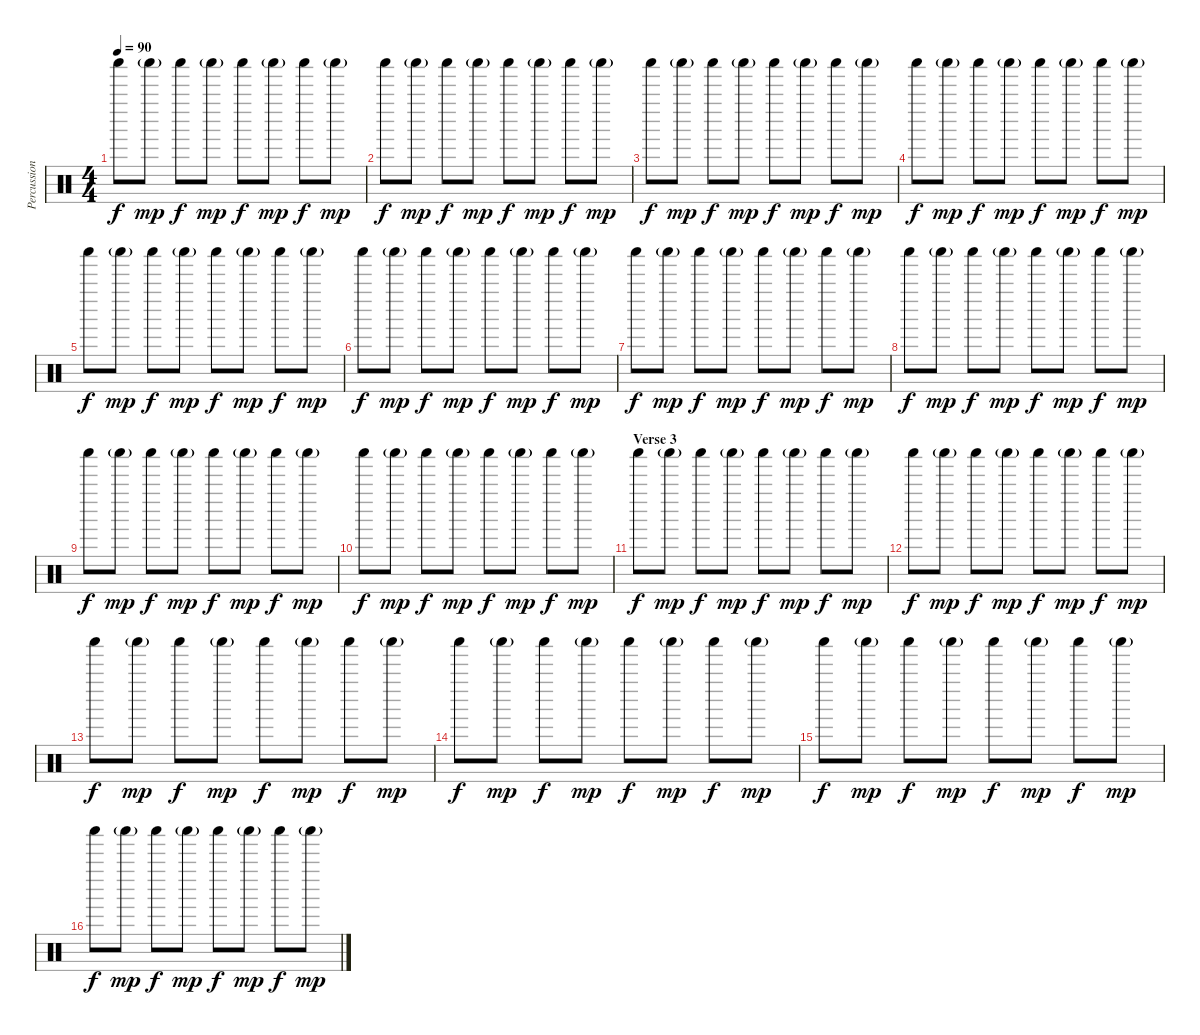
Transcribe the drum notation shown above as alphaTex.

\track ("Percussion 2" "Percussion") {instrument percussion}
\staff {score}
\articulation defaults
\ts (4 4)
\tempo 90
\clef neutral
\ks c "Shaker (hit)".8{dy f} "Shaker (hit)"{g}.8{dy mp} "Shaker (hit)".8{dy f} "Shaker (hit)"{g}.8{dy mp} "Shaker (hit)".8{dy f} "Shaker (hit)"{g}.8{dy mp} "Shaker (hit)".8{dy f} "Shaker (hit)"{g}.8{dy mp}
|
"Shaker (hit)".8{dy f} "Shaker (hit)"{g}.8{dy mp} "Shaker (hit)".8{dy f} "Shaker (hit)"{g}.8{dy mp} "Shaker (hit)".8{dy f} "Shaker (hit)"{g}.8{dy mp} "Shaker (hit)".8{dy f} "Shaker (hit)"{g}.8{dy mp} |
"Shaker (hit)".8{dy f} "Shaker (hit)"{g}.8{dy mp} "Shaker (hit)".8{dy f} "Shaker (hit)"{g}.8{dy mp} "Shaker (hit)".8{dy f} "Shaker (hit)"{g}.8{dy mp} "Shaker (hit)".8{dy f} "Shaker (hit)"{g}.8{dy mp} |
"Shaker (hit)".8{dy f} "Shaker (hit)"{g}.8{dy mp} "Shaker (hit)".8{dy f} "Shaker (hit)"{g}.8{dy mp} "Shaker (hit)".8{dy f} "Shaker (hit)"{g}.8{dy mp} "Shaker (hit)".8{dy f} "Shaker (hit)"{g}.8{dy mp} |
"Shaker (hit)".8{dy f} "Shaker (hit)"{g}.8{dy mp} "Shaker (hit)".8{dy f} "Shaker (hit)"{g}.8{dy mp} "Shaker (hit)".8{dy f} "Shaker (hit)"{g}.8{dy mp} "Shaker (hit)".8{dy f} "Shaker (hit)"{g}.8{dy mp} |
"Shaker (hit)".8{dy f} "Shaker (hit)"{g}.8{dy mp} "Shaker (hit)".8{dy f} "Shaker (hit)"{g}.8{dy mp} "Shaker (hit)".8{dy f} "Shaker (hit)"{g}.8{dy mp} "Shaker (hit)".8{dy f} "Shaker (hit)"{g}.8{dy mp} |
"Shaker (hit)".8{dy f} "Shaker (hit)"{g}.8{dy mp} "Shaker (hit)".8{dy f} "Shaker (hit)"{g}.8{dy mp} "Shaker (hit)".8{dy f} "Shaker (hit)"{g}.8{dy mp} "Shaker (hit)".8{dy f} "Shaker (hit)"{g}.8{dy mp} |
"Shaker (hit)".8{dy f} "Shaker (hit)"{g}.8{dy mp} "Shaker (hit)".8{dy f} "Shaker (hit)"{g}.8{dy mp} "Shaker (hit)".8{dy f} "Shaker (hit)"{g}.8{dy mp} "Shaker (hit)".8{dy f} "Shaker (hit)"{g}.8{dy mp} |
"Shaker (hit)".8{dy f} "Shaker (hit)"{g}.8{dy mp} "Shaker (hit)".8{dy f} "Shaker (hit)"{g}.8{dy mp} "Shaker (hit)".8{dy f} "Shaker (hit)"{g}.8{dy mp} "Shaker (hit)".8{dy f} "Shaker (hit)"{g}.8{dy mp} |
"Shaker (hit)".8{dy f} "Shaker (hit)"{g}.8{dy mp} "Shaker (hit)".8{dy f} "Shaker (hit)"{g}.8{dy mp} "Shaker (hit)".8{dy f} "Shaker (hit)"{g}.8{dy mp} "Shaker (hit)".8{dy f} "Shaker (hit)"{g}.8{dy mp} |
\section ("" "Verse 3")
"Shaker (hit)".8{dy f} "Shaker (hit)"{g}.8{dy mp} "Shaker (hit)".8{dy f} "Shaker (hit)"{g}.8{dy mp} "Shaker (hit)".8{dy f} "Shaker (hit)"{g}.8{dy mp} "Shaker (hit)".8{dy f} "Shaker (hit)"{g}.8{dy mp} |
"Shaker (hit)".8{dy f} "Shaker (hit)"{g}.8{dy mp} "Shaker (hit)".8{dy f} "Shaker (hit)"{g}.8{dy mp} "Shaker (hit)".8{dy f} "Shaker (hit)"{g}.8{dy mp} "Shaker (hit)".8{dy f} "Shaker (hit)"{g}.8{dy mp} |
"Shaker (hit)".8{dy f} "Shaker (hit)"{g}.8{dy mp} "Shaker (hit)".8{dy f} "Shaker (hit)"{g}.8{dy mp} "Shaker (hit)".8{dy f} "Shaker (hit)"{g}.8{dy mp} "Shaker (hit)".8{dy f} "Shaker (hit)"{g}.8{dy mp} |
"Shaker (hit)".8{dy f} "Shaker (hit)"{g}.8{dy mp} "Shaker (hit)".8{dy f} "Shaker (hit)"{g}.8{dy mp} "Shaker (hit)".8{dy f} "Shaker (hit)"{g}.8{dy mp} "Shaker (hit)".8{dy f} "Shaker (hit)"{g}.8{dy mp} |
"Shaker (hit)".8{dy f} "Shaker (hit)"{g}.8{dy mp} "Shaker (hit)".8{dy f} "Shaker (hit)"{g}.8{dy mp} "Shaker (hit)".8{dy f} "Shaker (hit)"{g}.8{dy mp} "Shaker (hit)".8{dy f} "Shaker (hit)"{g}.8{dy mp} |
"Shaker (hit)".8{dy f} "Shaker (hit)"{g}.8{dy mp} "Shaker (hit)".8{dy f} "Shaker (hit)"{g}.8{dy mp} "Shaker (hit)".8{dy f} "Shaker (hit)"{g}.8{dy mp} "Shaker (hit)".8{dy f} "Shaker (hit)"{g}.8{dy mp}
